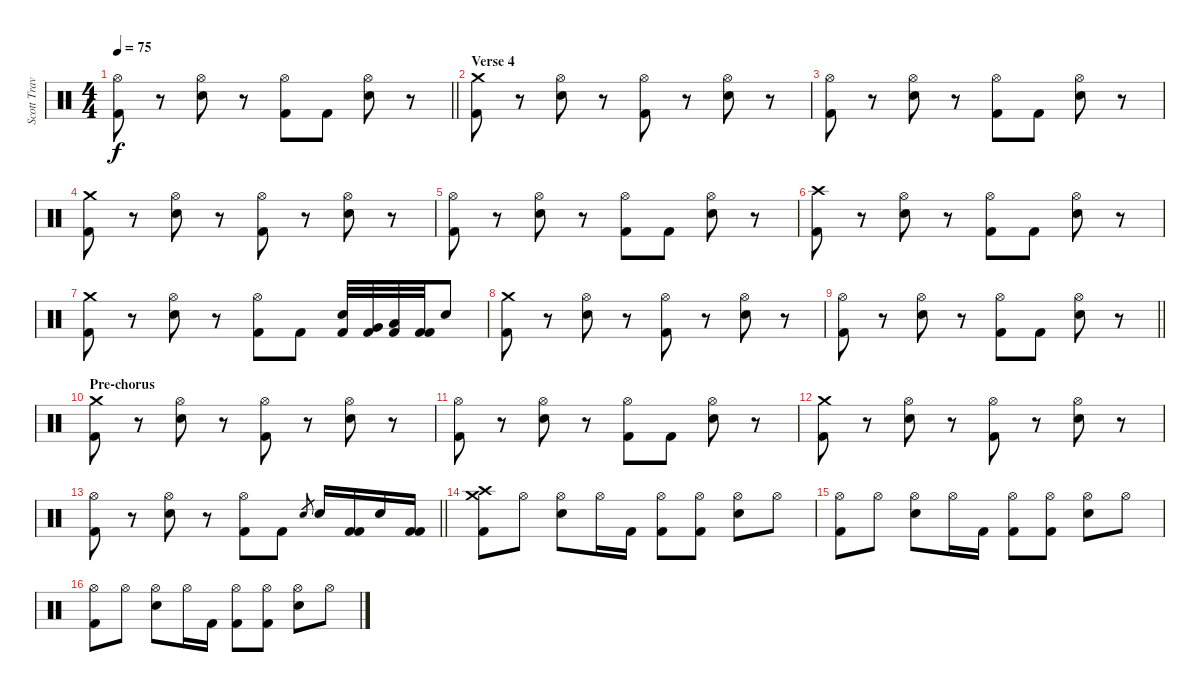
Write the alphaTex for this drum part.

\track ("Scott Travis" "Scott Trav") {instrument percussion}
\staff {score}
\articulation defaults
\ts (4 4)
\tempo 75
\clef neutral
\barLineRight lightlight
\ks c
("Hi-Hat (open)" "Kick (hit) 2").8{dy f} r.8 ("Hi-Hat (open)" "Snare (hit) 2").8 r.8 ("Hi-Hat (open)" "Kick (hit) 2").8 "Kick (hit) 2".8 ("Hi-Hat (open)" "Snare (hit) 2").8 r.8 |
\section ("" "Verse 4")
("Crash medium (hit)" "Kick (hit) 2").8 r.8 ("Hi-Hat (open)" "Snare (hit) 2").8 r.8 ("Hi-Hat (open)" "Kick (hit) 2").8 r.8 ("Hi-Hat (open)" "Snare (hit) 2").8 r.8 |
("Hi-Hat (open)" "Kick (hit) 2").8 r.8 ("Hi-Hat (open)" "Snare (hit) 2").8 r.8 ("Hi-Hat (open)" "Kick (hit) 2").8 "Kick (hit) 2".8 ("Hi-Hat (open)" "Snare (hit) 2").8 r.8 |
("Crash medium (hit)" "Kick (hit) 2").8 r.8 ("Hi-Hat (open)" "Snare (hit) 2").8 r.8 ("Hi-Hat (open)" "Kick (hit) 2").8 r.8 ("Hi-Hat (open)" "Snare (hit) 2").8 r.8 |
("Hi-Hat (open)" "Kick (hit) 2").8 r.8 ("Hi-Hat (open)" "Snare (hit) 2").8 r.8 ("Hi-Hat (open)" "Kick (hit) 2").8 "Kick (hit) 2".8 ("Hi-Hat (open)" "Snare (hit) 2").8 r.8 |
("Crash high (hit)" "Kick (hit) 2").8 r.8 ("Hi-Hat (open)" "Snare (hit) 2").8 r.8 ("Hi-Hat (open)" "Kick (hit) 2").8 "Kick (hit) 2".8 ("Hi-Hat (open)" "Snare (hit) 2").8 r.8 |
("Crash medium (hit)" "Kick (hit) 2").8 r.8 ("Hi-Hat (open)" "Snare (hit) 2").8 r.8 ("Hi-Hat (open)" "Kick (hit) 2").8 "Kick (hit) 2".8 ("Snare (hit) 2" "Kick (hit) 2").32 ("Very Low Tom (hit)" "Kick (hit) 2").32 ("Low Floor Tom (hit)" "Kick (hit) 2").32 ("Kick (hit) 2" "Kick (hit) 2").32 "Snare (hit) 2".8 |
("Crash medium (hit)" "Kick (hit) 2").8 r.8 ("Hi-Hat (open)" "Snare (hit) 2").8 r.8 ("Hi-Hat (open)" "Kick (hit) 2").8 r.8 ("Hi-Hat (open)" "Snare (hit) 2").8 r.8 |
\barLineRight lightlight
("Hi-Hat (open)" "Kick (hit) 2").8 r.8 ("Hi-Hat (open)" "Snare (hit) 2").8 r.8 ("Hi-Hat (open)" "Kick (hit) 2").8 "Kick (hit) 2".8 ("Hi-Hat (open)" "Snare (hit) 2").8 r.8 |
\section ("" "Pre-chorus")
("Crash medium (hit)" "Kick (hit) 2").8 r.8 ("Hi-Hat (open)" "Snare (hit) 2").8 r.8 ("Hi-Hat (open)" "Kick (hit) 2").8 r.8 ("Hi-Hat (open)" "Snare (hit) 2").8 r.8 |
("Hi-Hat (open)" "Kick (hit) 2").8 r.8 ("Hi-Hat (open)" "Snare (hit) 2").8 r.8 ("Hi-Hat (open)" "Kick (hit) 2").8 "Kick (hit) 2".8 ("Hi-Hat (open)" "Snare (hit) 2").8 r.8 |
("Crash medium (hit)" "Kick (hit) 2").8 r.8 ("Hi-Hat (open)" "Snare (hit) 2").8 r.8 ("Hi-Hat (open)" "Kick (hit) 2").8 r.8 ("Hi-Hat (open)" "Snare (hit) 2").8 r.8 |
\barLineRight lightlight
("Hi-Hat (open)" "Kick (hit) 2").8 r.8 ("Hi-Hat (open)" "Snare (hit) 2").8 r.8 ("Hi-Hat (open)" "Kick (hit) 2").8 "Kick (hit) 2".8 "Snare (hit) 2".8{gr} "Snare (hit) 2".16 ("Kick (hit) 2" "Kick (hit) 2").16 "Electric Snare (hit)".16 ("Kick (hit) 2" "Kick (hit) 2").16 |
("Crash high (hit)" "Crash medium (hit)" "Kick (hit) 2").8 "Hi-Hat (open)".8 ("Hi-Hat (open)" "Snare (hit) 2").8 "Hi-Hat (open)".16 "Kick (hit) 2".16 ("Hi-Hat (open)" "Kick (hit) 2").8 ("Hi-Hat (open)" "Kick (hit) 2").8 ("Hi-Hat (open)" "Snare (hit) 2").8 "Hi-Hat (open)".8 |
("Hi-Hat (open)" "Kick (hit) 2").8 "Hi-Hat (open)".8 ("Hi-Hat (open)" "Snare (hit) 2").8 "Hi-Hat (open)".16 "Kick (hit) 2".16 ("Hi-Hat (open)" "Kick (hit) 2").8 ("Hi-Hat (open)" "Kick (hit) 2").8 ("Hi-Hat (open)" "Snare (hit) 2").8 "Hi-Hat (open)".8 |
("Hi-Hat (open)" "Kick (hit) 2").8 "Hi-Hat (open)".8 ("Hi-Hat (open)" "Snare (hit) 2").8 "Hi-Hat (open)".16 "Kick (hit) 2".16 ("Hi-Hat (open)" "Kick (hit) 2").8 ("Hi-Hat (open)" "Kick (hit) 2").8 ("Hi-Hat (open)" "Snare (hit) 2").8 "Hi-Hat (open)".8
